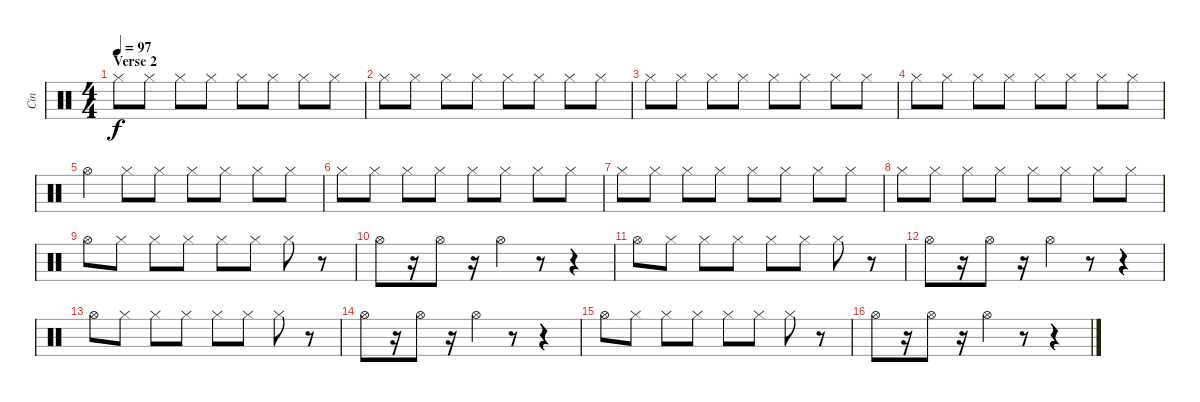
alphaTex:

\track ("Cin" "Cin") {instrument percussion}
\staff {score}
\articulation defaults
\ts (4 4)
\section ("" "Verse 2")
\tempo 97
\clef neutral
\ks c "Hi-Hat (closed)".8{dy f} "Hi-Hat (closed)".8 "Hi-Hat (closed)".8 "Hi-Hat (closed)".8 "Hi-Hat (closed)".8 "Hi-Hat (closed)".8 "Hi-Hat (closed)".8 "Hi-Hat (closed)".8
|
"Hi-Hat (closed)".8 "Hi-Hat (closed)".8 "Hi-Hat (closed)".8 "Hi-Hat (closed)".8 "Hi-Hat (closed)".8 "Hi-Hat (closed)".8 "Hi-Hat (closed)".8 "Hi-Hat (closed)".8 |
"Hi-Hat (closed)".8 "Hi-Hat (closed)".8 "Hi-Hat (closed)".8 "Hi-Hat (closed)".8 "Hi-Hat (closed)".8 "Hi-Hat (closed)".8 "Hi-Hat (closed)".8 "Hi-Hat (closed)".8 |
"Hi-Hat (closed)".8 "Hi-Hat (closed)".8 "Hi-Hat (closed)".8 "Hi-Hat (closed)".8 "Hi-Hat (closed)".8 "Hi-Hat (closed)".8 "Hi-Hat (closed)".8 "Hi-Hat (closed)".8 |
"Hi-Hat (open)".4 "Hi-Hat (closed)".8 "Hi-Hat (closed)".8 "Hi-Hat (closed)".8 "Hi-Hat (closed)".8 "Hi-Hat (closed)".8 "Hi-Hat (closed)".8 |
"Hi-Hat (closed)".8 "Hi-Hat (closed)".8 "Hi-Hat (closed)".8 "Hi-Hat (closed)".8 "Hi-Hat (closed)".8 "Hi-Hat (closed)".8 "Hi-Hat (closed)".8 "Hi-Hat (closed)".8 |
"Hi-Hat (closed)".8 "Hi-Hat (closed)".8 "Hi-Hat (closed)".8 "Hi-Hat (closed)".8 "Hi-Hat (closed)".8 "Hi-Hat (closed)".8 "Hi-Hat (closed)".8 "Hi-Hat (closed)".8 |
"Hi-Hat (closed)".8 "Hi-Hat (closed)".8 "Hi-Hat (closed)".8 "Hi-Hat (closed)".8 "Hi-Hat (closed)".8 "Hi-Hat (closed)".8 "Hi-Hat (closed)".8 "Hi-Hat (closed)".8 |
"Hi-Hat (open)".8 "Hi-Hat (closed)".8 "Hi-Hat (closed)".8 "Hi-Hat (closed)".8 "Hi-Hat (closed)".8 "Hi-Hat (closed)".8 "Hi-Hat (closed)".8 r.8 |
"Hi-Hat (open)".8 r.16 "Hi-Hat (open)".8 r.16 "Hi-Hat (open)".4 r.8 r.4 |
"Hi-Hat (open)".8 "Hi-Hat (closed)".8 "Hi-Hat (closed)".8 "Hi-Hat (closed)".8 "Hi-Hat (closed)".8 "Hi-Hat (closed)".8 "Hi-Hat (closed)".8 r.8 |
"Hi-Hat (open)".8 r.16 "Hi-Hat (open)".8 r.16 "Hi-Hat (open)".4 r.8 r.4 |
"Hi-Hat (open)".8 "Hi-Hat (closed)".8 "Hi-Hat (closed)".8 "Hi-Hat (closed)".8 "Hi-Hat (closed)".8 "Hi-Hat (closed)".8 "Hi-Hat (closed)".8 r.8 |
"Hi-Hat (open)".8 r.16 "Hi-Hat (open)".8 r.16 "Hi-Hat (open)".4 r.8 r.4 |
"Hi-Hat (open)".8 "Hi-Hat (closed)".8 "Hi-Hat (closed)".8 "Hi-Hat (closed)".8 "Hi-Hat (closed)".8 "Hi-Hat (closed)".8 "Hi-Hat (closed)".8 r.8 |
"Hi-Hat (open)".8 r.16 "Hi-Hat (open)".8 r.16 "Hi-Hat (open)".4 r.8 r.4
